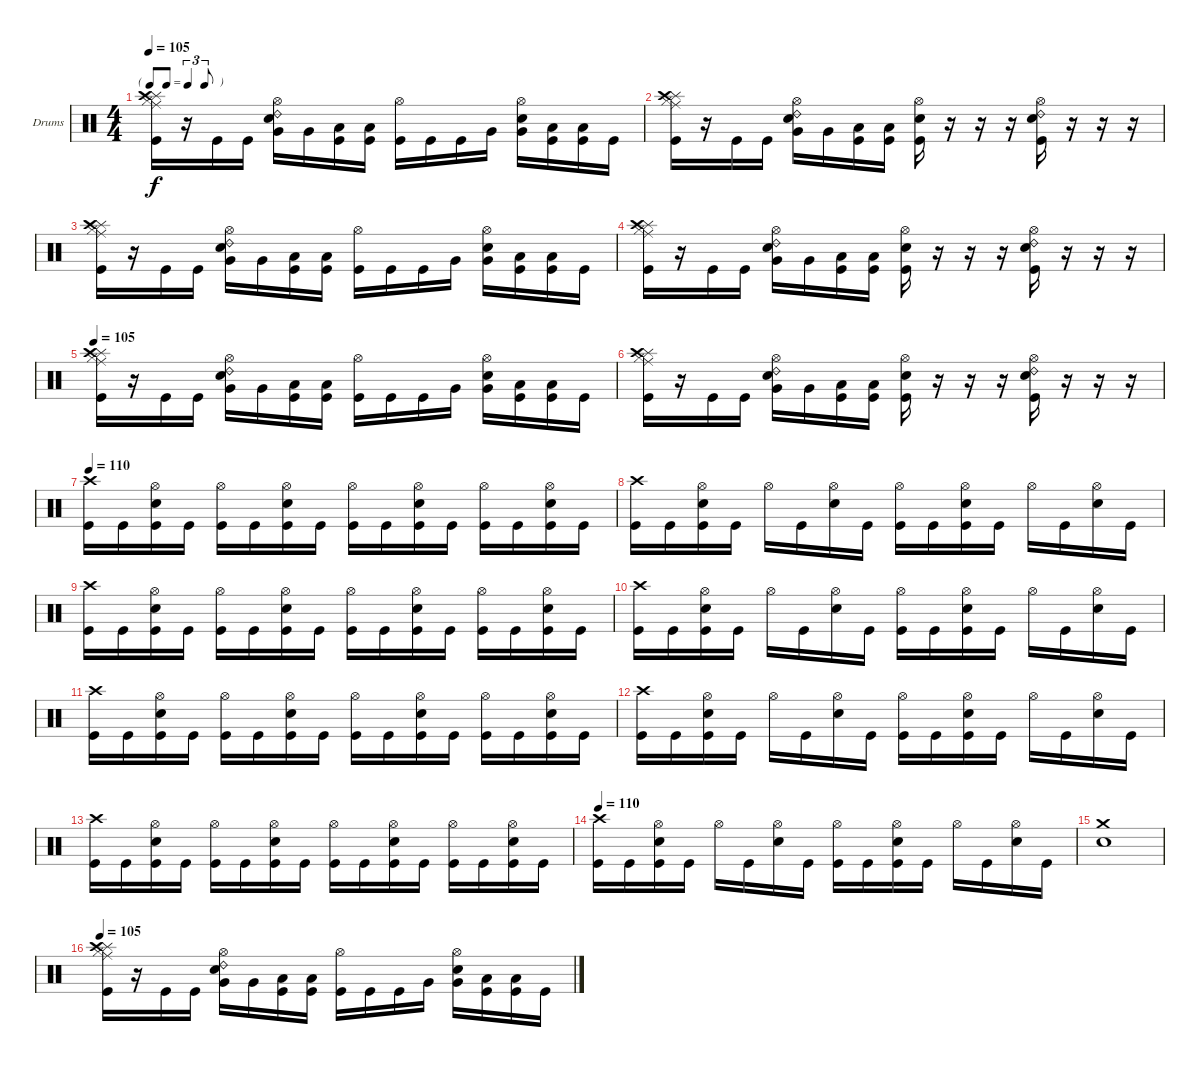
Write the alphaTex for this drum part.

\bracketExtendMode groupsimilarinstruments
\firstSystemTrackNameOrientation horizontal
\otherSystemsTrackNameOrientation horizontal
\track ("Drumkit" "Drums") {instrument percussion}
\staff {score}
\articulation defaults
\ts (4 4)
\tf triplet8th
\tempo 105
\clef neutral
\ks c
("Kick (hit)" "Ride (middle)" "Hi-Hat (closed)" "Splash (hit)" "Crash high (hit)").16{dy f} r.16 "Kick (hit)".16 "Kick (hit)".16 ("Very Low Tom (hit)" "Snare (hit) 2" "Ride (bell) 2" "Hi-Hat (open)").16 "Very Low Tom (hit)".16 ("Low Tom (hit)" "Kick (hit)").16 ("Low Tom (hit)" "Kick (hit)").16 ("Kick (hit)" "Hi-Hat (open)").16 "Kick (hit)".16 "Kick (hit)".16 "Very Low Tom (hit)".16 ("Very Low Tom (hit)" "Snare (hit) 2" "Hi-Hat (open)").16 ("Low Tom (hit)" "Kick (hit)").16 ("Low Tom (hit)" "Kick (hit)").16 "Kick (hit)".16 |
("Kick (hit)" "Ride (middle)" "Hi-Hat (closed)" "Splash (hit)" "Crash high (hit)").16 r.16 "Kick (hit)".16 "Kick (hit)".16 ("Very Low Tom (hit)" "Snare (hit) 2" "Ride (bell) 2" "Hi-Hat (open)").16 "Very Low Tom (hit)".16 ("Low Tom (hit)" "Kick (hit)").16 ("Low Tom (hit)" "Kick (hit)").16 ("Kick (hit)" "Hi-Hat (open)" "Snare (hit) 2").16 r.16 r.16 r.16 ("Kick (hit)" "Snare (hit) 2" "Ride (bell) 2" "Hi-Hat (open)").16 r.16 r.16 r.16 |
("Kick (hit)" "Ride (middle)" "Hi-Hat (closed)" "Splash (hit)" "Crash high (hit)").16 r.16 "Kick (hit)".16 "Kick (hit)".16 ("Very Low Tom (hit)" "Snare (hit) 2" "Ride (bell) 2" "Hi-Hat (open)").16 "Very Low Tom (hit)".16 ("Low Tom (hit)" "Kick (hit)").16 ("Low Tom (hit)" "Kick (hit)").16 ("Kick (hit)" "Hi-Hat (open)").16 "Kick (hit)".16 "Kick (hit)".16 "Very Low Tom (hit)".16 ("Very Low Tom (hit)" "Snare (hit) 2" "Hi-Hat (open)").16 ("Low Tom (hit)" "Kick (hit)").16 ("Low Tom (hit)" "Kick (hit)").16 "Kick (hit)".16 |
("Kick (hit)" "Ride (middle)" "Hi-Hat (closed)" "Splash (hit)" "Crash high (hit)").16 r.16 "Kick (hit)".16 "Kick (hit)".16 ("Very Low Tom (hit)" "Snare (hit) 2" "Ride (bell) 2" "Hi-Hat (open)").16 "Very Low Tom (hit)".16 ("Low Tom (hit)" "Kick (hit)").16 ("Low Tom (hit)" "Kick (hit)").16 ("Kick (hit)" "Hi-Hat (open)" "Snare (hit) 2").16 r.16 r.16 r.16 ("Kick (hit)" "Snare (hit) 2" "Ride (bell) 2" "Hi-Hat (open)").16 r.16 r.16 r.16 |
\tempo 105
("Kick (hit)" "Ride (middle)" "Hi-Hat (closed)" "Splash (hit)" "Crash high (hit)").16 r.16 "Kick (hit)".16 "Kick (hit)".16 ("Very Low Tom (hit)" "Snare (hit) 2" "Ride (bell) 2" "Hi-Hat (open)").16 "Very Low Tom (hit)".16 ("Low Tom (hit)" "Kick (hit)").16 ("Low Tom (hit)" "Kick (hit)").16 ("Kick (hit)" "Hi-Hat (open)").16 "Kick (hit)".16 "Kick (hit)".16 "Very Low Tom (hit)".16 ("Very Low Tom (hit)" "Snare (hit) 2" "Hi-Hat (open)").16 ("Low Tom (hit)" "Kick (hit)").16 ("Low Tom (hit)" "Kick (hit)").16 "Kick (hit)".16 |
("Kick (hit)" "Ride (middle)" "Hi-Hat (closed)" "Splash (hit)" "Crash high (hit)").16 r.16 "Kick (hit)".16 "Kick (hit)".16 ("Very Low Tom (hit)" "Snare (hit) 2" "Ride (bell) 2" "Hi-Hat (open)").16 "Very Low Tom (hit)".16 ("Low Tom (hit)" "Kick (hit)").16 ("Low Tom (hit)" "Kick (hit)").16 ("Kick (hit)" "Hi-Hat (open)" "Snare (hit) 2").16 r.16 r.16 r.16 ("Kick (hit)" "Snare (hit) 2" "Ride (bell) 2" "Hi-Hat (open)").16 r.16 r.16 r.16 |
\tempo 110
("Crash high (hit)" "Kick (hit)").16 "Kick (hit)".16 ("Hi-Hat (open)" "Snare (hit) 2" "Kick (hit)").16 "Kick (hit)".16 ("Hi-Hat (open)" "Kick (hit)").16 "Kick (hit)".16 ("Hi-Hat (open)" "Snare (hit) 2" "Kick (hit)").16 "Kick (hit)".16 ("Hi-Hat (open)" "Kick (hit)").16 "Kick (hit)".16 ("Hi-Hat (open)" "Snare (hit) 2" "Kick (hit)").16 "Kick (hit)".16 ("Hi-Hat (open)" "Kick (hit)").16 "Kick (hit)".16 ("Hi-Hat (open)" "Snare (hit) 2" "Kick (hit)").16 "Kick (hit)".16 |
("Crash high (hit)" "Kick (hit)").16 "Kick (hit)".16 ("Hi-Hat (open)" "Snare (hit) 2" "Kick (hit)").16 "Kick (hit)".16 "Hi-Hat (open)".16 "Kick (hit)".16 ("Hi-Hat (open)" "Snare (hit) 2").16 "Kick (hit)".16 ("Hi-Hat (open)" "Kick (hit)").16 "Kick (hit)".16 ("Hi-Hat (open)" "Snare (hit) 2" "Kick (hit)").16 "Kick (hit)".16 "Hi-Hat (open)".16 "Kick (hit)".16 ("Hi-Hat (open)" "Snare (hit) 2").16 "Kick (hit)".16 |
("Crash high (hit)" "Kick (hit)").16 "Kick (hit)".16 ("Hi-Hat (open)" "Snare (hit) 2" "Kick (hit)").16 "Kick (hit)".16 ("Hi-Hat (open)" "Kick (hit)").16 "Kick (hit)".16 ("Hi-Hat (open)" "Snare (hit) 2" "Kick (hit)").16 "Kick (hit)".16 ("Hi-Hat (open)" "Kick (hit)").16 "Kick (hit)".16 ("Hi-Hat (open)" "Snare (hit) 2" "Kick (hit)").16 "Kick (hit)".16 ("Hi-Hat (open)" "Kick (hit)").16 "Kick (hit)".16 ("Hi-Hat (open)" "Snare (hit) 2" "Kick (hit)").16 "Kick (hit)".16 |
("Crash high (hit)" "Kick (hit)").16 "Kick (hit)".16 ("Hi-Hat (open)" "Snare (hit) 2" "Kick (hit)").16 "Kick (hit)".16 "Hi-Hat (open)".16 "Kick (hit)".16 ("Hi-Hat (open)" "Snare (hit) 2").16 "Kick (hit)".16 ("Hi-Hat (open)" "Kick (hit)").16 "Kick (hit)".16 ("Hi-Hat (open)" "Snare (hit) 2" "Kick (hit)").16 "Kick (hit)".16 "Hi-Hat (open)".16 "Kick (hit)".16 ("Hi-Hat (open)" "Snare (hit) 2").16 "Kick (hit)".16 |
("Crash high (hit)" "Kick (hit)").16 "Kick (hit)".16 ("Hi-Hat (open)" "Snare (hit) 2" "Kick (hit)").16 "Kick (hit)".16 ("Hi-Hat (open)" "Kick (hit)").16 "Kick (hit)".16 ("Hi-Hat (open)" "Snare (hit) 2" "Kick (hit)").16 "Kick (hit)".16 ("Hi-Hat (open)" "Kick (hit)").16 "Kick (hit)".16 ("Hi-Hat (open)" "Snare (hit) 2" "Kick (hit)").16 "Kick (hit)".16 ("Hi-Hat (open)" "Kick (hit)").16 "Kick (hit)".16 ("Hi-Hat (open)" "Snare (hit) 2" "Kick (hit)").16 "Kick (hit)".16 |
("Crash high (hit)" "Kick (hit)").16 "Kick (hit)".16 ("Hi-Hat (open)" "Snare (hit) 2" "Kick (hit)").16 "Kick (hit)".16 "Hi-Hat (open)".16 "Kick (hit)".16 ("Hi-Hat (open)" "Snare (hit) 2").16 "Kick (hit)".16 ("Hi-Hat (open)" "Kick (hit)").16 "Kick (hit)".16 ("Hi-Hat (open)" "Snare (hit) 2" "Kick (hit)").16 "Kick (hit)".16 "Hi-Hat (open)".16 "Kick (hit)".16 ("Hi-Hat (open)" "Snare (hit) 2").16 "Kick (hit)".16 |
("Crash high (hit)" "Kick (hit)").16 "Kick (hit)".16 ("Hi-Hat (open)" "Snare (hit) 2" "Kick (hit)").16 "Kick (hit)".16 ("Hi-Hat (open)" "Kick (hit)").16 "Kick (hit)".16 ("Hi-Hat (open)" "Snare (hit) 2" "Kick (hit)").16 "Kick (hit)".16 ("Hi-Hat (open)" "Kick (hit)").16 "Kick (hit)".16 ("Hi-Hat (open)" "Snare (hit) 2" "Kick (hit)").16 "Kick (hit)".16 ("Hi-Hat (open)" "Kick (hit)").16 "Kick (hit)".16 ("Hi-Hat (open)" "Snare (hit) 2" "Kick (hit)").16 "Kick (hit)".16 |
\tempo 110
("Crash high (hit)" "Kick (hit)").16 "Kick (hit)".16 ("Hi-Hat (open)" "Snare (hit) 2" "Kick (hit)").16 "Kick (hit)".16 "Hi-Hat (open)".16 "Kick (hit)".16 ("Hi-Hat (open)" "Snare (hit) 2").16 "Kick (hit)".16 ("Hi-Hat (open)" "Kick (hit)").16 "Kick (hit)".16 ("Hi-Hat (open)" "Snare (hit) 2" "Kick (hit)").16 "Kick (hit)".16 "Hi-Hat (open)".16 "Kick (hit)".16 ("Hi-Hat (open)" "Snare (hit) 2").16 "Kick (hit)".16 |
("Crash medium (hit)" "Snare (hit) 2").1 |
\tempo 105
("Kick (hit)" "Ride (middle)" "Hi-Hat (closed)" "Splash (hit)" "Crash high (hit)").16 r.16 "Kick (hit)".16 "Kick (hit)".16 ("Very Low Tom (hit)" "Snare (hit) 2" "Ride (bell) 2" "Hi-Hat (open)").16 "Very Low Tom (hit)".16 ("Low Tom (hit)" "Kick (hit)").16 ("Low Tom (hit)" "Kick (hit)").16 ("Kick (hit)" "Hi-Hat (open)").16 "Kick (hit)".16 "Kick (hit)".16 "Very Low Tom (hit)".16 ("Very Low Tom (hit)" "Snare (hit) 2" "Hi-Hat (open)").16 ("Low Tom (hit)" "Kick (hit)").16 ("Low Tom (hit)" "Kick (hit)").16 "Kick (hit)".16
